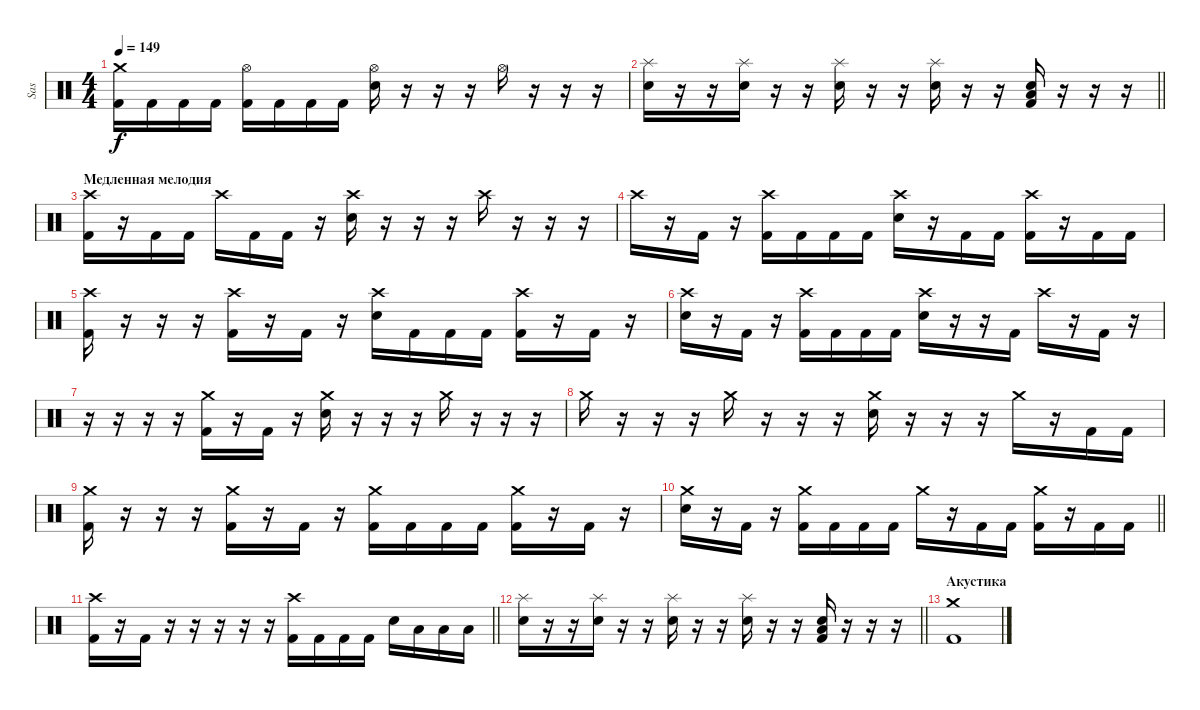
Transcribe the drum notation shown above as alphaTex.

\track ("Sas" "Sas") {instrument percussion}
\staff {score}
\articulation defaults
\ts (4 4)
\tempo 149
\clef neutral
\ks c
("Crash medium (hit)" "Kick (hit) 2").16{dy f} "Kick (hit) 2".16 "Kick (hit) 2".16 "Kick (hit) 2".16 ("Hi-Hat (open)" "Kick (hit) 2").16 "Kick (hit) 2".16 "Kick (hit) 2".16 "Kick (hit) 2".16 ("Hi-Hat (open)" "Snare (hit) 2").16 r.16 r.16 r.16 "Hi-Hat (open)".16 r.16 r.16 r.16 |
\barLineRight lightlight
("Splash (hit)" "Snare (hit) 2").16 r.16 r.16 ("Splash (hit)" "Snare (hit) 2").16 r.16 r.16 ("Splash (hit)" "Snare (hit) 2").16 r.16 r.16 ("Splash (hit)" "Snare (hit) 2").16 r.16 r.16 ("Low Tom (hit)" "Snare (hit) 2" "Kick (hit) 2").16 r.16 r.16 r.16 |
\section ("" "Медленная мелодия")
("Crash high (hit)" "Kick (hit) 2").16 r.16 "Kick (hit) 2".16 "Kick (hit) 2".16 "Crash high (hit)".16 "Kick (hit) 2".16 "Kick (hit) 2".16 r.16 ("Crash high (hit)" "Snare (hit) 2").16 r.16 r.16 r.16 "Crash high (hit)".16 r.16 r.16 r.16 |
"Crash high (hit)".16 r.16 "Kick (hit) 2".16 r.16 ("Crash high (hit)" "Kick (hit) 2").16 "Kick (hit) 2".16 "Kick (hit) 2".16 "Kick (hit) 2".16 ("Crash high (hit)" "Snare (hit) 2").16 r.16 "Kick (hit) 2".16 "Kick (hit) 2".16 ("Crash high (hit)" "Kick (hit) 2").16 r.16 "Kick (hit) 2".16 "Kick (hit) 2".16 |
("Crash high (hit)" "Kick (hit) 2").16 r.16 r.16 r.16 ("Crash high (hit)" "Kick (hit) 2").16 r.16 "Kick (hit) 2".16 r.16 ("Crash high (hit)" "Snare (hit) 2").16 "Kick (hit) 2".16 "Kick (hit) 2".16 "Kick (hit) 2".16 ("Crash high (hit)" "Kick (hit) 2").16 r.16 "Kick (hit) 2".16 r.16 |
("Crash high (hit)" "Snare (hit) 2").16 r.16 "Kick (hit) 2".16 r.16 ("Crash high (hit)" "Kick (hit) 2").16 "Kick (hit) 2".16 "Kick (hit) 2".16 "Kick (hit) 2".16 ("Crash high (hit)" "Snare (hit) 2").16 r.16 r.16 "Kick (hit) 2".16 "Crash high (hit)".16 r.16 "Kick (hit) 2".16 r.16 |
r.16 r.16 r.16 r.16 ("Crash medium (hit)" "Kick (hit) 2").16 r.16 "Kick (hit) 2".16 r.16 ("Crash medium (hit)" "Snare (hit) 2").16 r.16 r.16 r.16 "Crash medium (hit)".16 r.16 r.16 r.16 |
"Crash medium (hit)".16 r.16 r.16 r.16 "Crash medium (hit)".16 r.16 r.16 r.16 ("Crash medium (hit)" "Snare (hit) 2").16 r.16 r.16 r.16 "Crash medium (hit)".16 r.16 "Kick (hit) 2".16 "Kick (hit) 2".16 |
("Crash medium (hit)" "Kick (hit) 2").16 r.16 r.16 r.16 ("Crash medium (hit)" "Kick (hit) 2").16 r.16 "Kick (hit) 2".16 r.16 ("Crash medium (hit)" "Kick (hit) 2").16 "Kick (hit) 2".16 "Kick (hit) 2".16 "Kick (hit) 2".16 ("Crash medium (hit)" "Kick (hit) 2").16 r.16 "Kick (hit) 2".16 r.16 |
\barLineRight lightlight
("Crash medium (hit)" "Snare (hit) 2").16 r.16 "Kick (hit) 2".16 r.16 ("Crash medium (hit)" "Kick (hit) 2").16 "Kick (hit) 2".16 "Kick (hit) 2".16 "Kick (hit) 2".16 "Crash medium (hit)".16 r.16 "Kick (hit) 2".16 "Kick (hit) 2".16 ("Crash medium (hit)" "Kick (hit) 2").16 r.16 "Kick (hit) 2".16 "Kick (hit) 2".16 |
\barLineRight lightlight
("Crash high (hit)" "Kick (hit) 2").16 r.16 "Kick (hit) 2".16 r.16 r.16 r.16 r.16 r.16 ("Crash high (hit)" "Kick (hit) 2").16 "Kick (hit) 2".16 "Kick (hit) 2".16 "Kick (hit) 2".16 "Snare (hit) 2".16 "Low Tom (hit)".16 "Low Tom (hit)".16 "Low Tom (hit)".16 |
\barLineRight lightlight
("Splash (hit)" "Snare (hit) 2").16 r.16 r.16 ("Splash (hit)" "Snare (hit) 2").16 r.16 r.16 ("Splash (hit)" "Snare (hit) 2").16 r.16 r.16 ("Splash (hit)" "Snare (hit) 2").16 r.16 r.16 ("Low Tom (hit)" "Snare (hit) 2" "Kick (hit) 2").16 r.16 r.16 r.16 |
\section ("" "Акустика")
("Crash medium (hit)" "Kick (hit) 2").1
